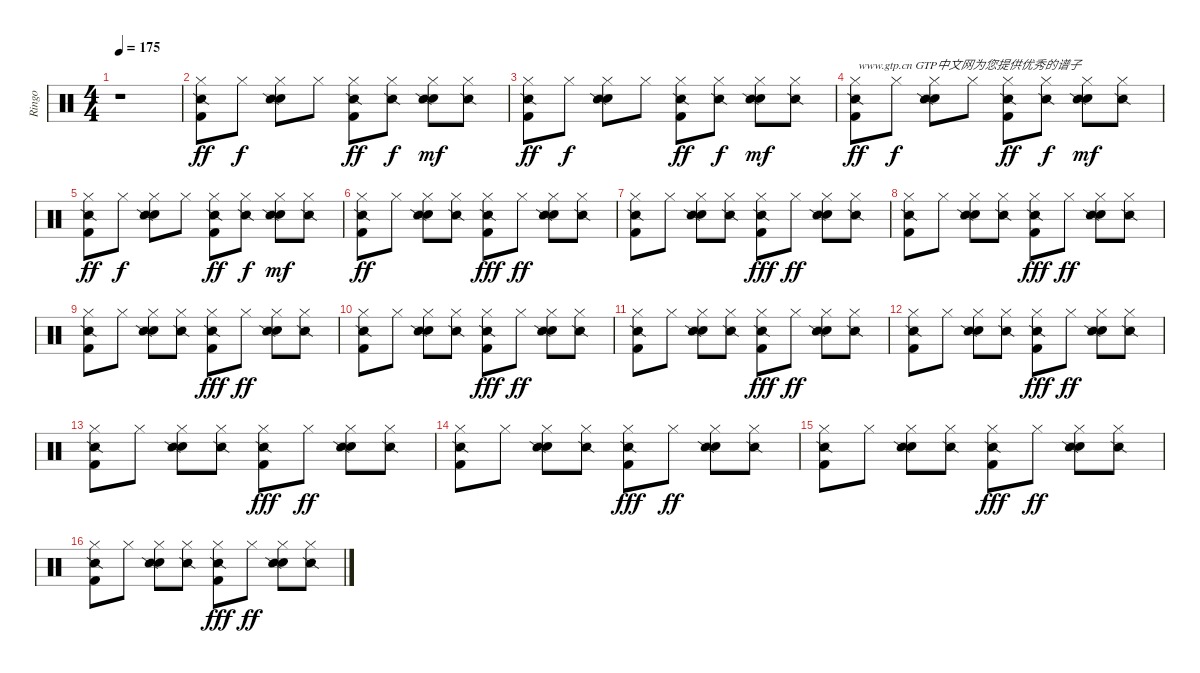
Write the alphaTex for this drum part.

\track ("Ringo" "Ringo") {instrument percussion}
\staff {score}
\articulation defaults
\ts (4 4)
\tempo 175
\clef neutral
\ks c
r.1{dy ff} |
("Hi-Hat (closed)" "Snare (side stick) 2" "Kick (hit) 2").8 "Hi-Hat (closed)".8{dy f} ("Hi-Hat (closed)" "Electric Snare (hit)" "Snare (side stick) 2").8 "Hi-Hat (closed)".8 ("Hi-Hat (closed)" "Snare (side stick) 2" "Kick (hit) 2").8{dy ff} ("Hi-Hat (closed)" "Snare (side stick) 2").8{dy f} ("Hi-Hat (closed)" "Electric Snare (hit)" "Snare (side stick) 2").8{dy mf} ("Hi-Hat (closed)" "Snare (side stick) 2").8 |
("Hi-Hat (closed)" "Snare (side stick) 2" "Kick (hit) 2").8{dy ff} "Hi-Hat (closed)".8{dy f} ("Hi-Hat (closed)" "Electric Snare (hit)" "Snare (side stick) 2").8 "Hi-Hat (closed)".8 ("Hi-Hat (closed)" "Snare (side stick) 2" "Kick (hit) 2").8{dy ff} ("Hi-Hat (closed)" "Snare (side stick) 2").8{dy f} ("Hi-Hat (closed)" "Electric Snare (hit)" "Snare (side stick) 2").8{dy mf} ("Hi-Hat (closed)" "Snare (side stick) 2").8 |
("Hi-Hat (closed)" "Snare (side stick) 2" "Kick (hit) 2").8{txt "www.gtp.cn GTP中文网为您提供优秀的谱子" dy ff} "Hi-Hat (closed)".8{dy f} ("Hi-Hat (closed)" "Electric Snare (hit)" "Snare (side stick) 2").8 "Hi-Hat (closed)".8 ("Hi-Hat (closed)" "Snare (side stick) 2" "Kick (hit) 2").8{dy ff} ("Hi-Hat (closed)" "Snare (side stick) 2").8{dy f} ("Hi-Hat (closed)" "Electric Snare (hit)" "Snare (side stick) 2").8{dy mf} ("Hi-Hat (closed)" "Snare (side stick) 2").8 |
("Hi-Hat (closed)" "Snare (side stick) 2" "Kick (hit) 2").8{dy ff} "Hi-Hat (closed)".8{dy f} ("Hi-Hat (closed)" "Electric Snare (hit)" "Snare (side stick) 2").8 "Hi-Hat (closed)".8 ("Hi-Hat (closed)" "Snare (side stick) 2" "Kick (hit) 2").8{dy ff} ("Hi-Hat (closed)" "Snare (side stick) 2").8{dy f} ("Hi-Hat (closed)" "Electric Snare (hit)" "Snare (side stick) 2").8{dy mf} ("Hi-Hat (closed)" "Snare (side stick) 2").8 |
("Hi-Hat (closed)" "Snare (side stick) 2" "Kick (hit) 2").8{dy ff} "Hi-Hat (closed)".8 ("Hi-Hat (closed)" "Electric Snare (hit)" "Snare (side stick) 2").8 ("Hi-Hat (closed)" "Snare (side stick) 2").8 ("Hi-Hat (closed)" "Snare (side stick) 2" "Kick (hit) 2").8{dy fff} "Hi-Hat (closed)".8{dy ff} ("Hi-Hat (closed)" "Electric Snare (hit)" "Snare (side stick) 2").8 ("Hi-Hat (closed)" "Snare (side stick) 2").8 |
("Hi-Hat (closed)" "Snare (side stick) 2" "Kick (hit) 2").8 "Hi-Hat (closed)".8 ("Hi-Hat (closed)" "Electric Snare (hit)" "Snare (side stick) 2").8 ("Hi-Hat (closed)" "Snare (side stick) 2").8 ("Hi-Hat (closed)" "Snare (side stick) 2" "Kick (hit) 2").8{dy fff} "Hi-Hat (closed)".8{dy ff} ("Hi-Hat (closed)" "Electric Snare (hit)" "Snare (side stick) 2").8 ("Hi-Hat (closed)" "Snare (side stick) 2").8 |
("Hi-Hat (closed)" "Snare (side stick) 2" "Kick (hit) 2").8 "Hi-Hat (closed)".8 ("Hi-Hat (closed)" "Electric Snare (hit)" "Snare (side stick) 2").8 ("Hi-Hat (closed)" "Snare (side stick) 2").8 ("Hi-Hat (closed)" "Snare (side stick) 2" "Kick (hit) 2").8{dy fff} "Hi-Hat (closed)".8{dy ff} ("Hi-Hat (closed)" "Electric Snare (hit)" "Snare (side stick) 2").8 ("Hi-Hat (closed)" "Snare (side stick) 2").8 |
("Hi-Hat (closed)" "Snare (side stick) 2" "Kick (hit) 2").8 "Hi-Hat (closed)".8 ("Hi-Hat (closed)" "Electric Snare (hit)" "Snare (side stick) 2").8 ("Hi-Hat (closed)" "Snare (side stick) 2").8 ("Hi-Hat (closed)" "Snare (side stick) 2" "Kick (hit) 2").8{dy fff} "Hi-Hat (closed)".8{dy ff} ("Hi-Hat (closed)" "Electric Snare (hit)" "Snare (side stick) 2").8 ("Hi-Hat (closed)" "Snare (side stick) 2").8 |
("Hi-Hat (closed)" "Snare (side stick) 2" "Kick (hit) 2").8 "Hi-Hat (closed)".8 ("Hi-Hat (closed)" "Electric Snare (hit)" "Snare (side stick) 2").8 ("Hi-Hat (closed)" "Snare (side stick) 2").8 ("Hi-Hat (closed)" "Snare (side stick) 2" "Kick (hit) 2").8{dy fff} "Hi-Hat (closed)".8{dy ff} ("Hi-Hat (closed)" "Electric Snare (hit)" "Snare (side stick) 2").8 ("Hi-Hat (closed)" "Snare (side stick) 2").8 |
("Hi-Hat (closed)" "Snare (side stick) 2" "Kick (hit) 2").8 "Hi-Hat (closed)".8 ("Hi-Hat (closed)" "Electric Snare (hit)" "Snare (side stick) 2").8 ("Hi-Hat (closed)" "Snare (side stick) 2").8 ("Hi-Hat (closed)" "Snare (side stick) 2" "Kick (hit) 2").8{dy fff} "Hi-Hat (closed)".8{dy ff} ("Hi-Hat (closed)" "Electric Snare (hit)" "Snare (side stick) 2").8 ("Hi-Hat (closed)" "Snare (side stick) 2").8 |
("Hi-Hat (closed)" "Snare (side stick) 2" "Kick (hit) 2").8 "Hi-Hat (closed)".8 ("Hi-Hat (closed)" "Electric Snare (hit)" "Snare (side stick) 2").8 ("Hi-Hat (closed)" "Snare (side stick) 2").8 ("Hi-Hat (closed)" "Snare (side stick) 2" "Kick (hit) 2").8{dy fff} "Hi-Hat (closed)".8{dy ff} ("Hi-Hat (closed)" "Electric Snare (hit)" "Snare (side stick) 2").8 ("Hi-Hat (closed)" "Snare (side stick) 2").8 |
("Hi-Hat (closed)" "Snare (side stick) 2" "Kick (hit) 2").8 "Hi-Hat (closed)".8 ("Hi-Hat (closed)" "Electric Snare (hit)" "Snare (side stick) 2").8 ("Hi-Hat (closed)" "Snare (side stick) 2").8 ("Hi-Hat (closed)" "Snare (side stick) 2" "Kick (hit) 2").8{dy fff} "Hi-Hat (closed)".8{dy ff} ("Hi-Hat (closed)" "Electric Snare (hit)" "Snare (side stick) 2").8 ("Hi-Hat (closed)" "Snare (side stick) 2").8 |
("Hi-Hat (closed)" "Snare (side stick) 2" "Kick (hit) 2").8 "Hi-Hat (closed)".8 ("Hi-Hat (closed)" "Electric Snare (hit)" "Snare (side stick) 2").8 ("Hi-Hat (closed)" "Snare (side stick) 2").8 ("Hi-Hat (closed)" "Snare (side stick) 2" "Kick (hit) 2").8{dy fff} "Hi-Hat (closed)".8{dy ff} ("Hi-Hat (closed)" "Electric Snare (hit)" "Snare (side stick) 2").8 ("Hi-Hat (closed)" "Snare (side stick) 2").8 |
("Hi-Hat (closed)" "Snare (side stick) 2" "Kick (hit) 2").8 "Hi-Hat (closed)".8 ("Hi-Hat (closed)" "Electric Snare (hit)" "Snare (side stick) 2").8 ("Hi-Hat (closed)" "Snare (side stick) 2").8 ("Hi-Hat (closed)" "Snare (side stick) 2" "Kick (hit) 2").8{dy fff} "Hi-Hat (closed)".8{dy ff} ("Hi-Hat (closed)" "Electric Snare (hit)" "Snare (side stick) 2").8 ("Hi-Hat (closed)" "Snare (side stick) 2").8 |
("Hi-Hat (closed)" "Snare (side stick) 2" "Kick (hit) 2").8 "Hi-Hat (closed)".8 ("Hi-Hat (closed)" "Electric Snare (hit)" "Snare (side stick) 2").8 ("Hi-Hat (closed)" "Snare (side stick) 2").8 ("Hi-Hat (closed)" "Snare (side stick) 2" "Kick (hit) 2").8{dy fff} "Hi-Hat (closed)".8{dy ff} ("Hi-Hat (closed)" "Electric Snare (hit)" "Snare (side stick) 2").8 ("Hi-Hat (closed)" "Snare (side stick) 2").8
